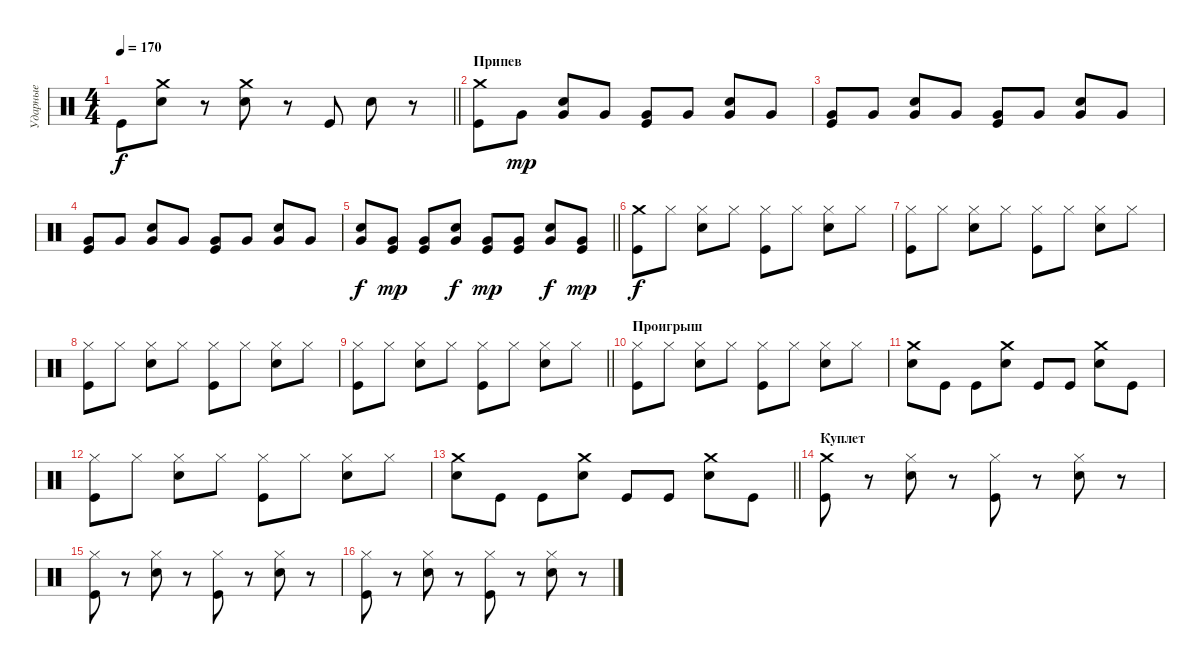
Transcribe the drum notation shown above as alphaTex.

\track ("Ударные" "Ударные") {instrument percussion}
\staff {score}
\articulation defaults
\ts (4 4)
\tempo 170
\clef neutral
\barLineRight lightlight
\ks c "Kick (hit)".8{dy f}
("Crash medium (hit)" "Electric Snare (hit)").8 r.8 ("Crash medium (hit)" "Electric Snare (hit)").8 r.8 "Kick (hit)".8 "Electric Snare (hit)".8 r.8 |
\section ("" "Припев")
("Crash medium (hit)" "Kick (hit)").8 "Very Low Tom (hit)".8{dy mp} ("Very Low Tom (hit)" "Electric Snare (hit)").8 "Very Low Tom (hit)".8 ("Very Low Tom (hit)" "Kick (hit)").8 "Very Low Tom (hit)".8 ("Very Low Tom (hit)" "Electric Snare (hit)").8 "Very Low Tom (hit)".8 |
("Very Low Tom (hit)" "Kick (hit)").8 "Very Low Tom (hit)".8 ("Very Low Tom (hit)" "Electric Snare (hit)").8 "Very Low Tom (hit)".8 ("Very Low Tom (hit)" "Kick (hit)").8 "Very Low Tom (hit)".8 ("Very Low Tom (hit)" "Electric Snare (hit)").8 "Very Low Tom (hit)".8 |
("Very Low Tom (hit)" "Kick (hit)").8 "Very Low Tom (hit)".8 ("Very Low Tom (hit)" "Electric Snare (hit)").8 "Very Low Tom (hit)".8 ("Very Low Tom (hit)" "Kick (hit)").8 "Very Low Tom (hit)".8 ("Very Low Tom (hit)" "Electric Snare (hit)").8 "Very Low Tom (hit)".8 |
\barLineRight lightlight
("Electric Snare (hit)" "Very Low Tom (hit)").8{dy f} ("Kick (hit)" "Very Low Tom (hit)").8{dy mp} ("Kick (hit)" "Very Low Tom (hit)").8 ("Electric Snare (hit)" "Very Low Tom (hit)").8{dy f} ("Kick (hit)" "Very Low Tom (hit)").8{dy mp} ("Kick (hit)" "Very Low Tom (hit)").8 ("Electric Snare (hit)" "Very Low Tom (hit)").8{dy f} ("Kick (hit)" "Very Low Tom (hit)").8{dy mp} |
\section ("" " ")
("Crash medium (hit)" "Kick (hit)").8{dy f} "Hi-Hat (closed)".8 ("Hi-Hat (closed)" "Electric Snare (hit)").8 "Hi-Hat (closed)".8 ("Hi-Hat (closed)" "Kick (hit)").8 "Hi-Hat (closed)".8 ("Hi-Hat (closed)" "Electric Snare (hit)").8 "Hi-Hat (closed)".8 |
("Hi-Hat (closed)" "Kick (hit)").8 "Hi-Hat (closed)".8 ("Hi-Hat (closed)" "Electric Snare (hit)").8 "Hi-Hat (closed)".8 ("Hi-Hat (closed)" "Kick (hit)").8 "Hi-Hat (closed)".8 ("Hi-Hat (closed)" "Electric Snare (hit)").8 "Hi-Hat (closed)".8 |
("Hi-Hat (closed)" "Kick (hit)").8 "Hi-Hat (closed)".8 ("Hi-Hat (closed)" "Electric Snare (hit)").8 "Hi-Hat (closed)".8 ("Hi-Hat (closed)" "Kick (hit)").8 "Hi-Hat (closed)".8 ("Hi-Hat (closed)" "Electric Snare (hit)").8 "Hi-Hat (closed)".8 |
\barLineRight lightlight
("Hi-Hat (closed)" "Kick (hit)").8 "Hi-Hat (closed)".8 ("Hi-Hat (closed)" "Electric Snare (hit)").8 "Hi-Hat (closed)".8 ("Hi-Hat (closed)" "Kick (hit)").8 "Hi-Hat (closed)".8 ("Hi-Hat (closed)" "Electric Snare (hit)").8 "Hi-Hat (closed)".8 |
\section ("" "Проигрыш")
("Hi-Hat (closed)" "Kick (hit)").8 "Hi-Hat (closed)".8 ("Hi-Hat (closed)" "Electric Snare (hit)").8 "Hi-Hat (closed)".8 ("Hi-Hat (closed)" "Kick (hit)").8 "Hi-Hat (closed)".8 ("Hi-Hat (closed)" "Electric Snare (hit)").8 "Hi-Hat (closed)".8 |
("Crash medium (hit)" "Electric Snare (hit)").8 "Kick (hit)".8 "Kick (hit)".8 ("Crash medium (hit)" "Electric Snare (hit)").8 "Kick (hit)".8 "Kick (hit)".8 ("Crash medium (hit)" "Electric Snare (hit)").8 "Kick (hit)".8 |
("Hi-Hat (closed)" "Kick (hit)").8 "Hi-Hat (closed)".8 ("Hi-Hat (closed)" "Electric Snare (hit)").8 "Hi-Hat (closed)".8 ("Hi-Hat (closed)" "Kick (hit)").8 "Hi-Hat (closed)".8 ("Hi-Hat (closed)" "Electric Snare (hit)").8 "Hi-Hat (closed)".8 |
\barLineRight lightlight
("Crash medium (hit)" "Electric Snare (hit)").8 "Kick (hit)".8 "Kick (hit)".8 ("Crash medium (hit)" "Electric Snare (hit)").8 "Kick (hit)".8 "Kick (hit)".8 ("Crash medium (hit)" "Electric Snare (hit)").8 "Kick (hit)".8 |
\section ("" "Куплет")
("Crash medium (hit)" "Kick (hit)").8 r.8 ("Hi-Hat (closed)" "Electric Snare (hit)").8 r.8 ("Hi-Hat (closed)" "Kick (hit)").8 r.8 ("Hi-Hat (closed)" "Electric Snare (hit)").8 r.8 |
("Hi-Hat (closed)" "Kick (hit)").8 r.8 ("Hi-Hat (closed)" "Electric Snare (hit)").8 r.8 ("Hi-Hat (closed)" "Kick (hit)").8 r.8 ("Hi-Hat (closed)" "Electric Snare (hit)").8 r.8 |
("Hi-Hat (closed)" "Kick (hit)").8 r.8 ("Hi-Hat (closed)" "Electric Snare (hit)").8 r.8 ("Hi-Hat (closed)" "Kick (hit)").8 r.8 ("Hi-Hat (closed)" "Electric Snare (hit)").8 r.8
